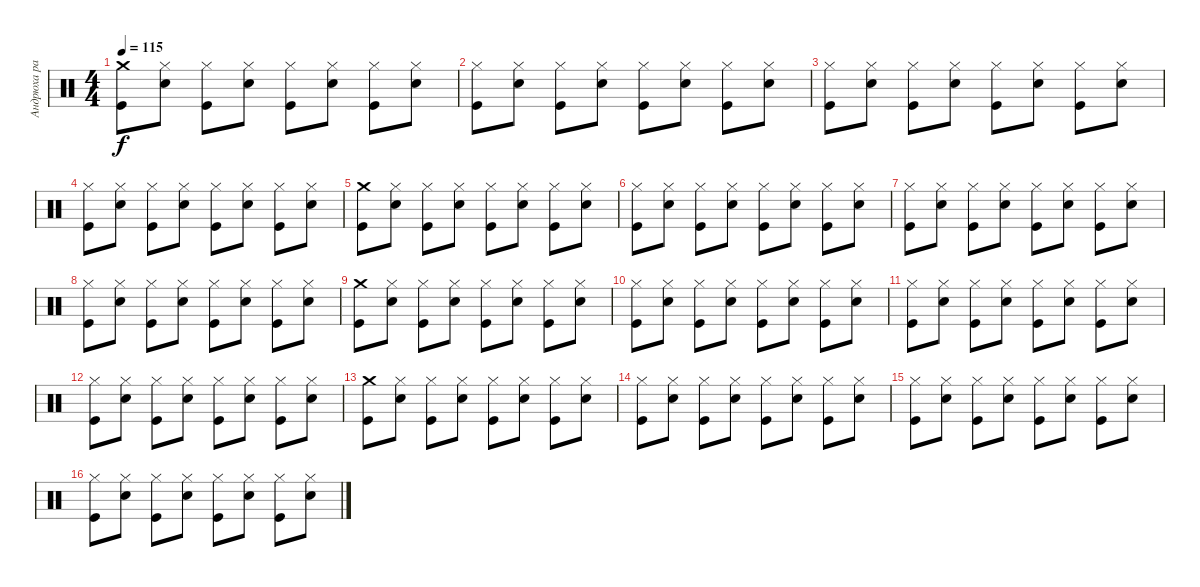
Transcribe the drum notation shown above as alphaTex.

\track ("Андрюха радостный" "Андрюха ра") {instrument percussion}
\staff {score}
\articulation defaults
\ts (4 4)
\tempo 115
\clef neutral
\ks c
("Crash medium (hit)" "Kick (hit)").8{dy f} ("Hi-Hat (closed)" "Electric Snare (hit)").8 ("Hi-Hat (closed)" "Kick (hit)").8 ("Hi-Hat (closed)" "Electric Snare (hit)").8 ("Hi-Hat (closed)" "Kick (hit)").8 ("Hi-Hat (closed)" "Electric Snare (hit)").8 ("Hi-Hat (closed)" "Kick (hit)").8 ("Hi-Hat (closed)" "Electric Snare (hit)").8 |
("Hi-Hat (closed)" "Kick (hit)").8 ("Hi-Hat (closed)" "Electric Snare (hit)").8 ("Hi-Hat (closed)" "Kick (hit)").8 ("Hi-Hat (closed)" "Electric Snare (hit)").8 ("Hi-Hat (closed)" "Kick (hit)").8 ("Hi-Hat (closed)" "Electric Snare (hit)").8 ("Hi-Hat (closed)" "Kick (hit)").8 ("Hi-Hat (closed)" "Electric Snare (hit)").8 |
("Hi-Hat (closed)" "Kick (hit)").8 ("Hi-Hat (closed)" "Electric Snare (hit)").8 ("Hi-Hat (closed)" "Kick (hit)").8 ("Hi-Hat (closed)" "Electric Snare (hit)").8 ("Hi-Hat (closed)" "Kick (hit)").8 ("Hi-Hat (closed)" "Electric Snare (hit)").8 ("Hi-Hat (closed)" "Kick (hit)").8 ("Hi-Hat (closed)" "Electric Snare (hit)").8 |
("Hi-Hat (closed)" "Kick (hit)").8 ("Hi-Hat (closed)" "Electric Snare (hit)").8 ("Hi-Hat (closed)" "Kick (hit)").8 ("Hi-Hat (closed)" "Electric Snare (hit)").8 ("Hi-Hat (closed)" "Kick (hit)").8 ("Hi-Hat (closed)" "Electric Snare (hit)").8 ("Hi-Hat (closed)" "Kick (hit)").8 ("Hi-Hat (closed)" "Electric Snare (hit)").8 |
("Crash medium (hit)" "Kick (hit)").8 ("Hi-Hat (closed)" "Electric Snare (hit)").8 ("Hi-Hat (closed)" "Kick (hit)").8 ("Hi-Hat (closed)" "Electric Snare (hit)").8 ("Hi-Hat (closed)" "Kick (hit)").8 ("Hi-Hat (closed)" "Electric Snare (hit)").8 ("Hi-Hat (closed)" "Kick (hit)").8 ("Hi-Hat (closed)" "Electric Snare (hit)").8 |
("Hi-Hat (closed)" "Kick (hit)").8 ("Hi-Hat (closed)" "Electric Snare (hit)").8 ("Hi-Hat (closed)" "Kick (hit)").8 ("Hi-Hat (closed)" "Electric Snare (hit)").8 ("Hi-Hat (closed)" "Kick (hit)").8 ("Hi-Hat (closed)" "Electric Snare (hit)").8 ("Hi-Hat (closed)" "Kick (hit)").8 ("Hi-Hat (closed)" "Electric Snare (hit)").8 |
("Hi-Hat (closed)" "Kick (hit)").8 ("Hi-Hat (closed)" "Electric Snare (hit)").8 ("Hi-Hat (closed)" "Kick (hit)").8 ("Hi-Hat (closed)" "Electric Snare (hit)").8 ("Hi-Hat (closed)" "Kick (hit)").8 ("Hi-Hat (closed)" "Electric Snare (hit)").8 ("Hi-Hat (closed)" "Kick (hit)").8 ("Hi-Hat (closed)" "Electric Snare (hit)").8 |
("Hi-Hat (closed)" "Kick (hit)").8 ("Hi-Hat (closed)" "Electric Snare (hit)").8 ("Hi-Hat (closed)" "Kick (hit)").8 ("Hi-Hat (closed)" "Electric Snare (hit)").8 ("Hi-Hat (closed)" "Kick (hit)").8 ("Hi-Hat (closed)" "Electric Snare (hit)").8 ("Hi-Hat (closed)" "Kick (hit)").8 ("Hi-Hat (closed)" "Electric Snare (hit)").8 |
("Crash medium (hit)" "Kick (hit)").8 ("Hi-Hat (closed)" "Electric Snare (hit)").8 ("Hi-Hat (closed)" "Kick (hit)").8 ("Hi-Hat (closed)" "Electric Snare (hit)").8 ("Hi-Hat (closed)" "Kick (hit)").8 ("Hi-Hat (closed)" "Electric Snare (hit)").8 ("Hi-Hat (closed)" "Kick (hit)").8 ("Hi-Hat (closed)" "Electric Snare (hit)").8 |
("Hi-Hat (closed)" "Kick (hit)").8 ("Hi-Hat (closed)" "Electric Snare (hit)").8 ("Hi-Hat (closed)" "Kick (hit)").8 ("Hi-Hat (closed)" "Electric Snare (hit)").8 ("Hi-Hat (closed)" "Kick (hit)").8 ("Hi-Hat (closed)" "Electric Snare (hit)").8 ("Hi-Hat (closed)" "Kick (hit)").8 ("Hi-Hat (closed)" "Electric Snare (hit)").8 |
("Hi-Hat (closed)" "Kick (hit)").8 ("Hi-Hat (closed)" "Electric Snare (hit)").8 ("Hi-Hat (closed)" "Kick (hit)").8 ("Hi-Hat (closed)" "Electric Snare (hit)").8 ("Hi-Hat (closed)" "Kick (hit)").8 ("Hi-Hat (closed)" "Electric Snare (hit)").8 ("Hi-Hat (closed)" "Kick (hit)").8 ("Hi-Hat (closed)" "Electric Snare (hit)").8 |
("Hi-Hat (closed)" "Kick (hit)").8 ("Hi-Hat (closed)" "Electric Snare (hit)").8 ("Hi-Hat (closed)" "Kick (hit)").8 ("Hi-Hat (closed)" "Electric Snare (hit)").8 ("Hi-Hat (closed)" "Kick (hit)").8 ("Hi-Hat (closed)" "Electric Snare (hit)").8 ("Hi-Hat (closed)" "Kick (hit)").8 ("Hi-Hat (closed)" "Electric Snare (hit)").8 |
("Crash medium (hit)" "Kick (hit)").8 ("Hi-Hat (closed)" "Electric Snare (hit)").8 ("Hi-Hat (closed)" "Kick (hit)").8 ("Hi-Hat (closed)" "Electric Snare (hit)").8 ("Hi-Hat (closed)" "Kick (hit)").8 ("Hi-Hat (closed)" "Electric Snare (hit)").8 ("Hi-Hat (closed)" "Kick (hit)").8 ("Hi-Hat (closed)" "Electric Snare (hit)").8 |
("Hi-Hat (closed)" "Kick (hit)").8 ("Hi-Hat (closed)" "Electric Snare (hit)").8 ("Hi-Hat (closed)" "Kick (hit)").8 ("Hi-Hat (closed)" "Electric Snare (hit)").8 ("Hi-Hat (closed)" "Kick (hit)").8 ("Hi-Hat (closed)" "Electric Snare (hit)").8 ("Hi-Hat (closed)" "Kick (hit)").8 ("Hi-Hat (closed)" "Electric Snare (hit)").8 |
("Hi-Hat (closed)" "Kick (hit)").8 ("Hi-Hat (closed)" "Electric Snare (hit)").8 ("Hi-Hat (closed)" "Kick (hit)").8 ("Hi-Hat (closed)" "Electric Snare (hit)").8 ("Hi-Hat (closed)" "Kick (hit)").8 ("Hi-Hat (closed)" "Electric Snare (hit)").8 ("Hi-Hat (closed)" "Kick (hit)").8 ("Hi-Hat (closed)" "Electric Snare (hit)").8 |
("Hi-Hat (closed)" "Kick (hit)").8 ("Hi-Hat (closed)" "Electric Snare (hit)").8 ("Hi-Hat (closed)" "Kick (hit)").8 ("Hi-Hat (closed)" "Electric Snare (hit)").8 ("Hi-Hat (closed)" "Kick (hit)").8 ("Hi-Hat (closed)" "Electric Snare (hit)").8 ("Hi-Hat (closed)" "Kick (hit)").8 ("Hi-Hat (closed)" "Electric Snare (hit)").8
